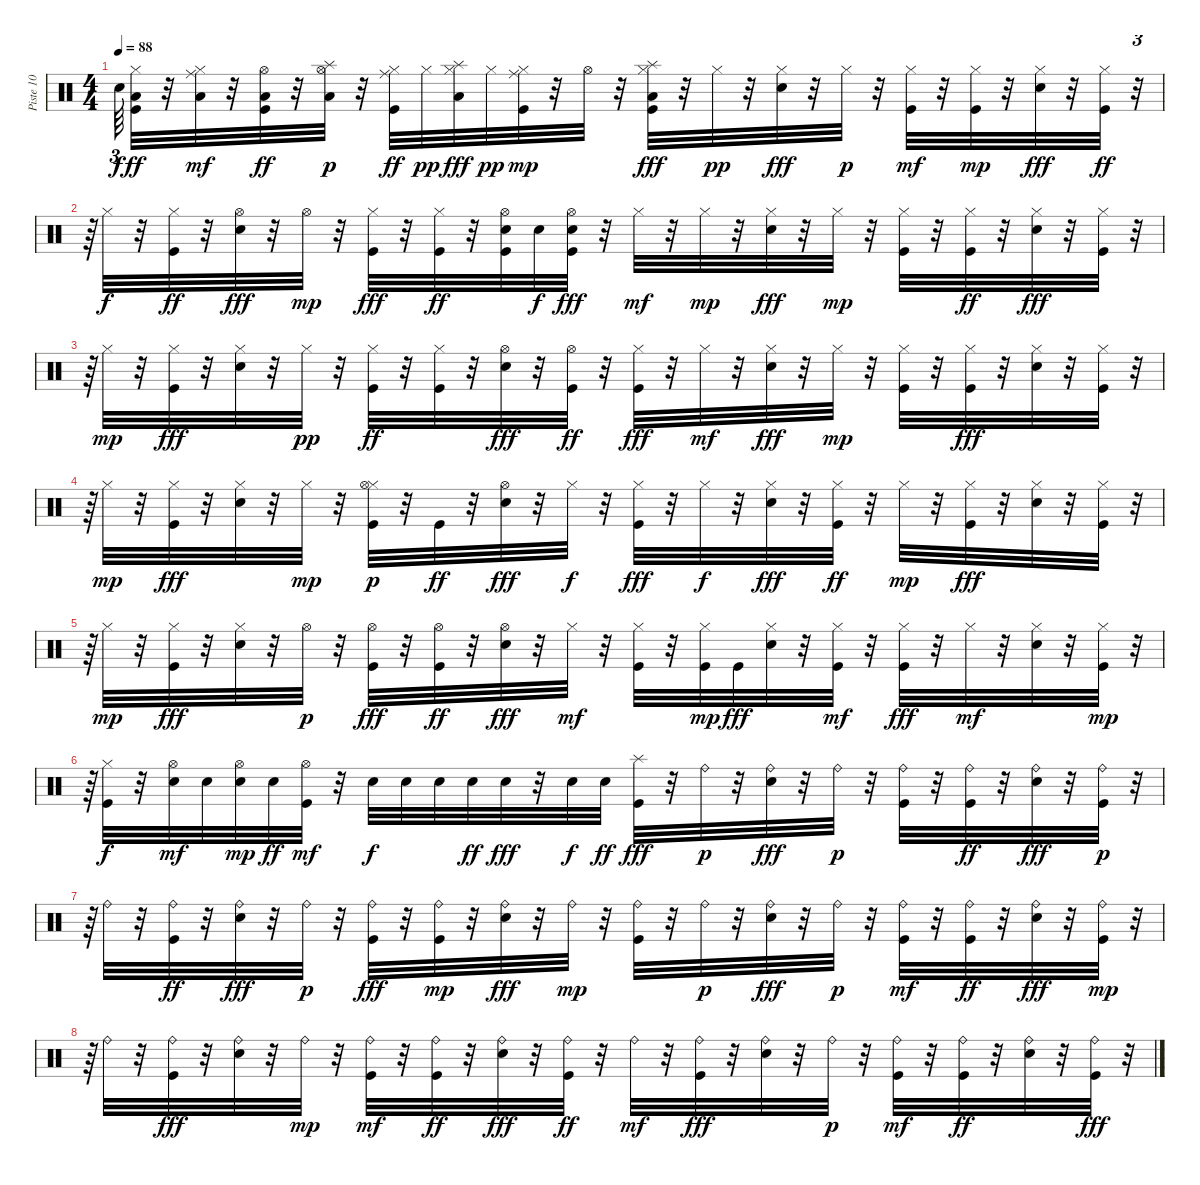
\track ("Piste 10" "Piste 10") {instrument percussion}
\staff {score}
\articulation defaults
\ts (4 4)
\tempo 88
\clef neutral
\ks c "Snare (hit)"{t}.64{tu (3 2) dy f}
("Hi-Hat (closed)" "Low Floor Tom (hit)" "Kick (hit)").32{dy ff} r.32 ("Ride (middle)" "Hi-Hat (closed)" "Low Floor Tom (hit)").32{dy mf} r.32 ("Low Floor Tom (hit)" "Hi-Hat (open)" "Kick (hit)").32{dy ff} r.32 ("Splash (hit)" "Hi-Hat (open)" "Low Floor Tom (hit)").32{dy p} r.32 ("Hi-Hat (closed)" "Ride (middle)" "Kick (hit)").32{dy ff} "Hi-Hat (closed)".32{dy pp} ("Hi-Hat (closed)" "Splash (hit)" "Low Floor Tom (hit)").32{dy fff} "Hi-Hat (closed)".32{dy pp} ("Hi-Hat (closed)" "Kick (hit)" "Ride (middle)").32{dy mp} r.32 "Hi-Hat (open)".32 r.32 ("Low Floor Tom (hit)" "Hi-Hat (closed)" "Kick (hit)" "Splash (hit)").32{dy fff} r.32 "Hi-Hat (closed)".32{dy pp} r.32 ("Electric Snare (hit)" "Hi-Hat (closed)").32{dy fff} r.32 "Hi-Hat (closed)".32{dy p} r.32 ("Hi-Hat (closed)" "Kick (hit)").32{dy mf} r.32 ("Hi-Hat (closed)" "Kick (hit)").32{dy mp} r.32 ("Hi-Hat (closed)" "Electric Snare (hit)").32{dy fff} r.32 ("Hi-Hat (closed)" "Kick (hit)").32{dy ff} r.32{tu (3 2)} |
r.64{tu (3 2)} "Hi-Hat (closed)".32{dy f} r.32 ("Hi-Hat (closed)" "Kick (hit)").32{dy ff} r.32 ("Hi-Hat (open)" "Electric Snare (hit)").32{dy fff} r.32 "Hi-Hat (open)".32{dy mp} r.32 ("Hi-Hat (closed)" "Kick (hit)").32{dy fff} r.32 ("Hi-Hat (closed)" "Kick (hit)").32{dy ff} r.32 ("Hi-Hat (open)" "Electric Snare (hit)" "Kick (hit)").32 "Electric Snare (hit)".32{dy f} ("Hi-Hat (open)" "Kick (hit)" "Electric Snare (hit)").32{dy fff} r.32 "Hi-Hat (closed)".32{dy mf} r.32 "Hi-Hat (closed)".32{dy mp} r.32 ("Hi-Hat (closed)" "Electric Snare (hit)").32{dy fff} r.32 "Hi-Hat (closed)".32{dy mp} r.32 ("Hi-Hat (closed)" "Kick (hit)").32 r.32 ("Hi-Hat (closed)" "Kick (hit)").32{dy ff} r.32 ("Hi-Hat (closed)" "Electric Snare (hit)").32{dy fff} r.32 ("Hi-Hat (closed)" "Kick (hit)").32 r.32{tu (3 2)} |
r.64{tu (3 2)} "Hi-Hat (closed)".32{dy mp} r.32 ("Hi-Hat (closed)" "Kick (hit)").32{dy fff} r.32 ("Hi-Hat (closed)" "Electric Snare (hit)").32 r.32 "Hi-Hat (closed)".32{dy pp} r.32 ("Hi-Hat (closed)" "Kick (hit)").32{dy ff} r.32 ("Hi-Hat (closed)" "Kick (hit)").32 r.32 ("Hi-Hat (open)" "Electric Snare (hit)").32{dy fff} r.32 ("Hi-Hat (open)" "Kick (hit)").32{dy ff} r.32 ("Hi-Hat (closed)" "Kick (hit)").32{dy fff} r.32 "Hi-Hat (closed)".32{dy mf} r.32 ("Hi-Hat (closed)" "Electric Snare (hit)").32{dy fff} r.32 "Hi-Hat (closed)".32{dy mp} r.32 ("Hi-Hat (closed)" "Kick (hit)").32 r.32 ("Hi-Hat (closed)" "Kick (hit)").32{dy fff} r.32 ("Hi-Hat (closed)" "Electric Snare (hit)").32 r.32 ("Hi-Hat (closed)" "Kick (hit)").32 r.32{tu (3 2)} |
r.64{tu (3 2)} "Hi-Hat (closed)".32{dy mp} r.32 ("Hi-Hat (closed)" "Kick (hit)").32{dy fff} r.32 ("Hi-Hat (closed)" "Electric Snare (hit)").32 r.32 "Hi-Hat (closed)".32{dy mp} r.32 ("Hi-Hat (closed)" "Hi-Hat (open)" "Kick (hit)").32{dy p} r.32 "Kick (hit)".32{dy ff} r.32 ("Hi-Hat (open)" "Electric Snare (hit)").32{dy fff} r.32 "Hi-Hat (closed)".32{dy f} r.32 ("Hi-Hat (closed)" "Kick (hit)").32{dy fff} r.32 "Hi-Hat (closed)".32{dy f} r.32 ("Hi-Hat (closed)" "Electric Snare (hit)").32{dy fff} r.32 ("Hi-Hat (closed)" "Kick (hit)").32{dy ff} r.32 "Hi-Hat (closed)".32{dy mp} r.32 ("Hi-Hat (closed)" "Kick (hit)").32{dy fff} r.32 ("Hi-Hat (closed)" "Electric Snare (hit)").32 r.32 ("Hi-Hat (closed)" "Kick (hit)").32 r.32{tu (3 2)} |
r.64{tu (3 2)} "Hi-Hat (closed)".32{dy mp} r.32 ("Hi-Hat (closed)" "Kick (hit)").32{dy fff} r.32 ("Hi-Hat (closed)" "Electric Snare (hit)").32 r.32 "Hi-Hat (open)".32{dy p} r.32 ("Hi-Hat (open)" "Kick (hit)").32{dy fff} r.32 ("Hi-Hat (open)" "Kick (hit)").32{dy ff} r.32 ("Hi-Hat (open)" "Electric Snare (hit)").32{dy fff} r.32 "Hi-Hat (closed)".32{dy mf} r.32 ("Hi-Hat (closed)" "Kick (hit)").32 r.32 ("Hi-Hat (closed)" "Kick (hit)").32{dy mp} "Kick (hit)".32{dy fff} ("Hi-Hat (closed)" "Electric Snare (hit)").32 r.32 ("Hi-Hat (closed)" "Kick (hit)").32{dy mf} r.32 ("Hi-Hat (closed)" "Kick (hit)").32{dy fff} r.32 "Hi-Hat (closed)".32{dy mf} r.32 ("Electric Snare (hit)" "Hi-Hat (closed)").32 r.32 ("Hi-Hat (closed)" "Kick (hit)").32{dy mp} r.32{tu (3 2)} |
r.64{tu (3 2)} ("Hi-Hat (closed)" "Kick (hit)").32{dy f} r.32 ("Hi-Hat (open)" "Electric Snare (hit)").32{dy mf} "Electric Snare (hit)".32 ("Hi-Hat (open)" "Electric Snare (hit)").32{dy mp} "Electric Snare (hit)".32{dy ff} ("Kick (hit)" "Hi-Hat (open)").32{dy mf} r.32 "Electric Snare (hit)".32{dy f} "Electric Snare (hit)".32 "Electric Snare (hit)".32 "Electric Snare (hit)".32{dy ff} "Electric Snare (hit)".32{dy fff} r.32 "Electric Snare (hit)".32{dy f} "Electric Snare (hit)".32{dy ff} ("Kick (hit)" "Splash (hit)").32{dy fff} r.32 "Ride (bell)".32{dy p} r.32 ("Ride (bell)" "Electric Snare (hit)").32{dy fff} r.32 "Ride (bell)".32{dy p} r.32 ("Ride (bell)" "Kick (hit)").32 r.32 ("Ride (bell)" "Kick (hit)").32{dy ff} r.32 ("Ride (bell)" "Electric Snare (hit)").32{dy fff} r.32 ("Kick (hit)" "Ride (bell)").32{dy p} r.32{tu (3 2)} |
r.64{tu (3 2)} "Ride (bell)".32 r.32 ("Ride (bell)" "Kick (hit)").32{dy ff} r.32 ("Ride (bell)" "Electric Snare (hit)").32{dy fff} r.32 "Ride (bell)".32{dy p} r.32 ("Ride (bell)" "Kick (hit)").32{dy fff} r.32 ("Ride (bell)" "Kick (hit)").32{dy mp} r.32 ("Ride (bell)" "Electric Snare (hit)").32{dy fff} r.32 "Ride (bell)".32{dy mp} r.32 ("Kick (hit)" "Ride (bell)").32 r.32 "Ride (bell)".32{dy p} r.32 ("Ride (bell)" "Electric Snare (hit)").32{dy fff} r.32 "Ride (bell)".32{dy p} r.32 ("Kick (hit)" "Ride (bell)").32{dy mf} r.32 ("Ride (bell)" "Kick (hit)").32{dy ff} r.32 ("Electric Snare (hit)" "Ride (bell)").32{dy fff} r.32 ("Kick (hit)" "Ride (bell)").32{dy mp} r.32{tu (3 2)} |
r.64{tu (3 2)} "Ride (bell)".32 r.32 ("Ride (bell)" "Kick (hit)").32{dy fff} r.32 ("Ride (bell)" "Electric Snare (hit)").32 r.32 "Ride (bell)".32{dy mp} r.32 ("Kick (hit)" "Ride (bell)").32{dy mf} r.32 ("Ride (bell)" "Kick (hit)").32{dy ff} r.32 ("Ride (bell)" "Electric Snare (hit)").32{dy fff} r.32 ("Ride (bell)" "Kick (hit)").32{dy ff} r.32 "Ride (bell)".32{dy mf} r.32 ("Ride (bell)" "Kick (hit)").32{dy fff} r.32 ("Ride (bell)" "Electric Snare (hit)").32 r.32 "Ride (bell)".32{dy p} r.32 ("Kick (hit)" "Ride (bell)").32{dy mf} r.32 ("Ride (bell)" "Kick (hit)").32{dy ff} r.32 ("Electric Snare (hit)" "Ride (bell)").32 r.32 ("Ride (bell)" "Kick (hit)").32{dy fff} r.32{tu (3 2)}
